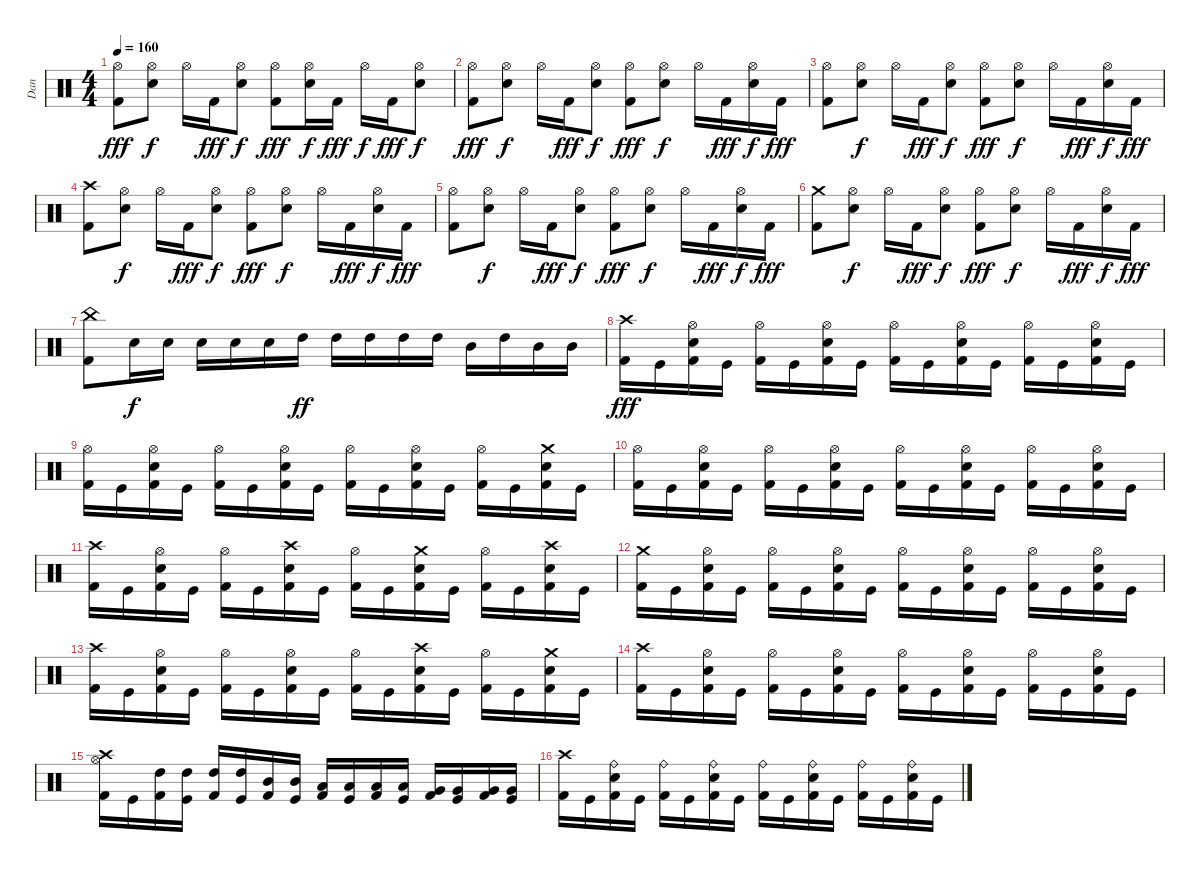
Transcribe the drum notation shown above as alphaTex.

\track ("Dan " "Dan ") {instrument percussion}
\staff {score}
\articulation defaults
\ts (4 4)
\tempo 160
\clef neutral
\ks c
("Hi-Hat (open)" "Kick (hit) 2").8{dy fff} ("Hi-Hat (open)" "Electric Snare (hit)").8{dy f} "Hi-Hat (open)".16 "Kick (hit) 2".16{dy fff} ("Hi-Hat (open)" "Electric Snare (hit)").8{dy f} ("Hi-Hat (open)" "Kick (hit) 2").8{dy fff} ("Hi-Hat (open)" "Electric Snare (hit)").16{dy f} "Kick (hit) 2".16{dy fff} "Hi-Hat (open)".16{dy f} "Kick (hit) 2".16{dy fff} ("Hi-Hat (open)" "Electric Snare (hit)").8{dy f} |
("Hi-Hat (open)" "Kick (hit) 2").8{dy fff} ("Hi-Hat (open)" "Electric Snare (hit)").8{dy f} "Hi-Hat (open)".16 "Kick (hit) 2".16{dy fff} ("Hi-Hat (open)" "Electric Snare (hit)").8{dy f} ("Hi-Hat (open)" "Kick (hit) 2").8{dy fff} ("Hi-Hat (open)" "Electric Snare (hit)").8{dy f} "Hi-Hat (open)".16 "Kick (hit) 2".16{dy fff} ("Hi-Hat (open)" "Electric Snare (hit)").16{dy f} "Kick (hit) 2".16{dy fff} |
("Hi-Hat (open)" "Kick (hit) 2").8 ("Hi-Hat (open)" "Electric Snare (hit)").8{dy f} "Hi-Hat (open)".16 "Kick (hit) 2".16{dy fff} ("Hi-Hat (open)" "Electric Snare (hit)").8{dy f} ("Hi-Hat (open)" "Kick (hit) 2").8{dy fff} ("Hi-Hat (open)" "Electric Snare (hit)").8{dy f} "Hi-Hat (open)".16 "Kick (hit) 2".16{dy fff} ("Hi-Hat (open)" "Electric Snare (hit)").16{dy f} "Kick (hit) 2".16{dy fff} |
("Crash high (hit)" "Kick (hit) 2").8 ("Hi-Hat (open)" "Electric Snare (hit)").8{dy f} "Hi-Hat (open)".16 "Kick (hit) 2".16{dy fff} ("Hi-Hat (open)" "Electric Snare (hit)").8{dy f} ("Hi-Hat (open)" "Kick (hit) 2").8{dy fff} ("Hi-Hat (open)" "Electric Snare (hit)").8{dy f} "Hi-Hat (open)".16 "Kick (hit) 2".16{dy fff} ("Hi-Hat (open)" "Electric Snare (hit)").16{dy f} "Kick (hit) 2".16{dy fff} |
("Hi-Hat (open)" "Kick (hit) 2").8 ("Hi-Hat (open)" "Electric Snare (hit)").8{dy f} "Hi-Hat (open)".16 "Kick (hit) 2".16{dy fff} ("Hi-Hat (open)" "Electric Snare (hit)").8{dy f} ("Hi-Hat (open)" "Kick (hit) 2").8{dy fff} ("Hi-Hat (open)" "Electric Snare (hit)").8{dy f} "Hi-Hat (open)".16 "Kick (hit) 2".16{dy fff} ("Hi-Hat (open)" "Electric Snare (hit)").16{dy f} "Kick (hit) 2".16{dy fff} |
("Crash medium (hit)" "Kick (hit) 2").8 ("Hi-Hat (open)" "Electric Snare (hit)").8{dy f} "Hi-Hat (open)".16 "Kick (hit) 2".16{dy fff} ("Hi-Hat (open)" "Electric Snare (hit)").8{dy f} ("Hi-Hat (open)" "Kick (hit) 2").8{dy fff} ("Hi-Hat (open)" "Electric Snare (hit)").8{dy f} "Hi-Hat (open)".16 "Kick (hit) 2".16{dy fff} ("Hi-Hat (open)" "Electric Snare (hit)").16{dy f} "Kick (hit) 2".16{dy fff} |
("China (hit)" "Kick (hit) 2").8 "Electric Snare (hit)".16{dy f} "Electric Snare (hit)".16 "Electric Snare (hit)".16 "Electric Snare (hit)".16 "Electric Snare (hit)".16 "High Tom (hit)".16{dy ff} "High Tom (hit)".16 "High Tom (hit)".16 "High Tom (hit)".16 "High Tom (hit)".16 "Mid Tom (hit)".16 "High Tom (hit)".16 "Mid Tom (hit)".16 "Mid Tom (hit)".16 |
("Crash high (hit)" "Kick (hit) 2").16{dy fff} "Kick (hit)".16 ("Hi-Hat (open)" "Electric Snare (hit)" "Kick (hit) 2").16 "Kick (hit)".16 ("Hi-Hat (open)" "Kick (hit) 2").16 "Kick (hit)".16 ("Hi-Hat (open)" "Electric Snare (hit)" "Kick (hit) 2").16 "Kick (hit)".16 ("Hi-Hat (open)" "Kick (hit) 2").16 "Kick (hit)".16 ("Hi-Hat (open)" "Electric Snare (hit)" "Kick (hit) 2").16 "Kick (hit)".16 ("Hi-Hat (open)" "Kick (hit) 2").16 "Kick (hit)".16 ("Hi-Hat (open)" "Electric Snare (hit)" "Kick (hit) 2").16 "Kick (hit)".16 |
("Hi-Hat (open)" "Kick (hit) 2").16 "Kick (hit)".16 ("Hi-Hat (open)" "Electric Snare (hit)" "Kick (hit) 2").16 "Kick (hit)".16 ("Hi-Hat (open)" "Kick (hit) 2").16 "Kick (hit)".16 ("Hi-Hat (open)" "Electric Snare (hit)" "Kick (hit) 2").16 "Kick (hit)".16 ("Hi-Hat (open)" "Kick (hit) 2").16 "Kick (hit)".16 ("Hi-Hat (open)" "Electric Snare (hit)" "Kick (hit) 2").16 "Kick (hit)".16 ("Hi-Hat (open)" "Kick (hit) 2").16 "Kick (hit)".16 ("Crash medium (hit)" "Electric Snare (hit)" "Kick (hit) 2").16 "Kick (hit)".16 |
("Hi-Hat (open)" "Kick (hit) 2").16 "Kick (hit)".16 ("Hi-Hat (open)" "Electric Snare (hit)" "Kick (hit) 2").16 "Kick (hit)".16 ("Hi-Hat (open)" "Kick (hit) 2").16 "Kick (hit)".16 ("Hi-Hat (open)" "Electric Snare (hit)" "Kick (hit) 2").16 "Kick (hit)".16 ("Hi-Hat (open)" "Kick (hit) 2").16 "Kick (hit)".16 ("Hi-Hat (open)" "Electric Snare (hit)" "Kick (hit) 2").16 "Kick (hit)".16 ("Hi-Hat (open)" "Kick (hit) 2").16 "Kick (hit)".16 ("Hi-Hat (open)" "Electric Snare (hit)" "Kick (hit) 2").16 "Kick (hit)".16 |
("Crash high (hit)" "Kick (hit) 2").16 "Kick (hit)".16 ("Hi-Hat (open)" "Electric Snare (hit)" "Kick (hit) 2").16 "Kick (hit)".16 ("Hi-Hat (open)" "Kick (hit) 2").16 "Kick (hit)".16 ("Crash high (hit)" "Electric Snare (hit)" "Kick (hit) 2").16 "Kick (hit)".16 ("Hi-Hat (open)" "Kick (hit) 2").16 "Kick (hit)".16 ("Crash medium (hit)" "Electric Snare (hit)" "Kick (hit) 2").16 "Kick (hit)".16 ("Hi-Hat (open)" "Kick (hit) 2").16 "Kick (hit)".16 ("Crash high (hit)" "Electric Snare (hit)" "Kick (hit) 2").16 "Kick (hit)".16 |
("Crash medium (hit)" "Kick (hit) 2").16 "Kick (hit)".16 ("Hi-Hat (open)" "Electric Snare (hit)" "Kick (hit) 2").16 "Kick (hit)".16 ("Hi-Hat (open)" "Kick (hit) 2").16 "Kick (hit)".16 ("Hi-Hat (open)" "Electric Snare (hit)" "Kick (hit) 2").16 "Kick (hit)".16 ("Hi-Hat (open)" "Kick (hit) 2").16 "Kick (hit)".16 ("Hi-Hat (open)" "Electric Snare (hit)" "Kick (hit) 2").16 "Kick (hit)".16 ("Hi-Hat (open)" "Kick (hit) 2").16 "Kick (hit)".16 ("Hi-Hat (open)" "Electric Snare (hit)" "Kick (hit) 2").16 "Kick (hit)".16 |
("Crash high (hit)" "Kick (hit) 2").16 "Kick (hit)".16 ("Hi-Hat (open)" "Electric Snare (hit)" "Kick (hit) 2").16 "Kick (hit)".16 ("Hi-Hat (open)" "Kick (hit) 2").16 "Kick (hit)".16 ("Hi-Hat (open)" "Electric Snare (hit)" "Kick (hit) 2").16 "Kick (hit)".16 ("Hi-Hat (open)" "Kick (hit) 2").16 "Kick (hit)".16 ("Crash high (hit)" "Electric Snare (hit)" "Kick (hit) 2").16 "Kick (hit)".16 ("Hi-Hat (open)" "Kick (hit) 2").16 "Kick (hit)".16 ("Crash medium (hit)" "Electric Snare (hit)" "Kick (hit) 2").16 "Kick (hit)".16 |
("Crash high (hit)" "Kick (hit) 2").16 "Kick (hit)".16 ("Hi-Hat (open)" "Electric Snare (hit)" "Kick (hit) 2").16 "Kick (hit)".16 ("Hi-Hat (open)" "Kick (hit) 2").16 "Kick (hit)".16 ("Hi-Hat (open)" "Electric Snare (hit)" "Kick (hit) 2").16 "Kick (hit)".16 ("Hi-Hat (open)" "Kick (hit) 2").16 "Kick (hit)".16 ("Hi-Hat (open)" "Electric Snare (hit)" "Kick (hit) 2").16 "Kick (hit)".16 ("Hi-Hat (open)" "Kick (hit) 2").16 "Kick (hit)".16 ("Hi-Hat (open)" "Electric Snare (hit)" "Kick (hit) 2").16 "Kick (hit)".16 |
("Crash high (hit)" "Hi-Hat (open)" "Kick (hit) 2").16 "Kick (hit)".16 ("High Tom (hit)" "Kick (hit) 2").16 ("High Tom (hit)" "Kick (hit)").16 ("High Tom (hit)" "Kick (hit) 2").16 ("High Tom (hit)" "Kick (hit)").16 ("Mid Tom (hit)" "Kick (hit) 2").16 ("Mid Tom (hit)" "Kick (hit)").16 ("Low Tom (hit)" "Kick (hit) 2").16 ("Low Tom (hit)" "Kick (hit)").16 ("Low Tom (hit)" "Kick (hit) 2").16 ("Low Tom (hit)" "Kick (hit)").16 ("Very Low Tom (hit)" "Kick (hit) 2").16 ("Very Low Tom (hit)" "Kick (hit)").16 ("Very Low Tom (hit)" "Kick (hit) 2").16 ("Very Low Tom (hit)" "Kick (hit)").16 |
("Crash high (hit)" "Kick (hit) 2").16 "Kick (hit)".16 ("Ride (bell)" "Electric Snare (hit)" "Kick (hit) 2").16 "Kick (hit)".16 ("Ride (bell)" "Kick (hit) 2").16 "Kick (hit)".16 ("Ride (bell)" "Electric Snare (hit)" "Kick (hit) 2").16 "Kick (hit)".16 ("Ride (bell)" "Kick (hit) 2").16 "Kick (hit)".16 ("Ride (bell)" "Electric Snare (hit)" "Kick (hit) 2").16 "Kick (hit)".16 ("Ride (bell)" "Kick (hit) 2").16 "Kick (hit)".16 ("Ride (bell)" "Electric Snare (hit)" "Kick (hit) 2").16 "Kick (hit)".16
